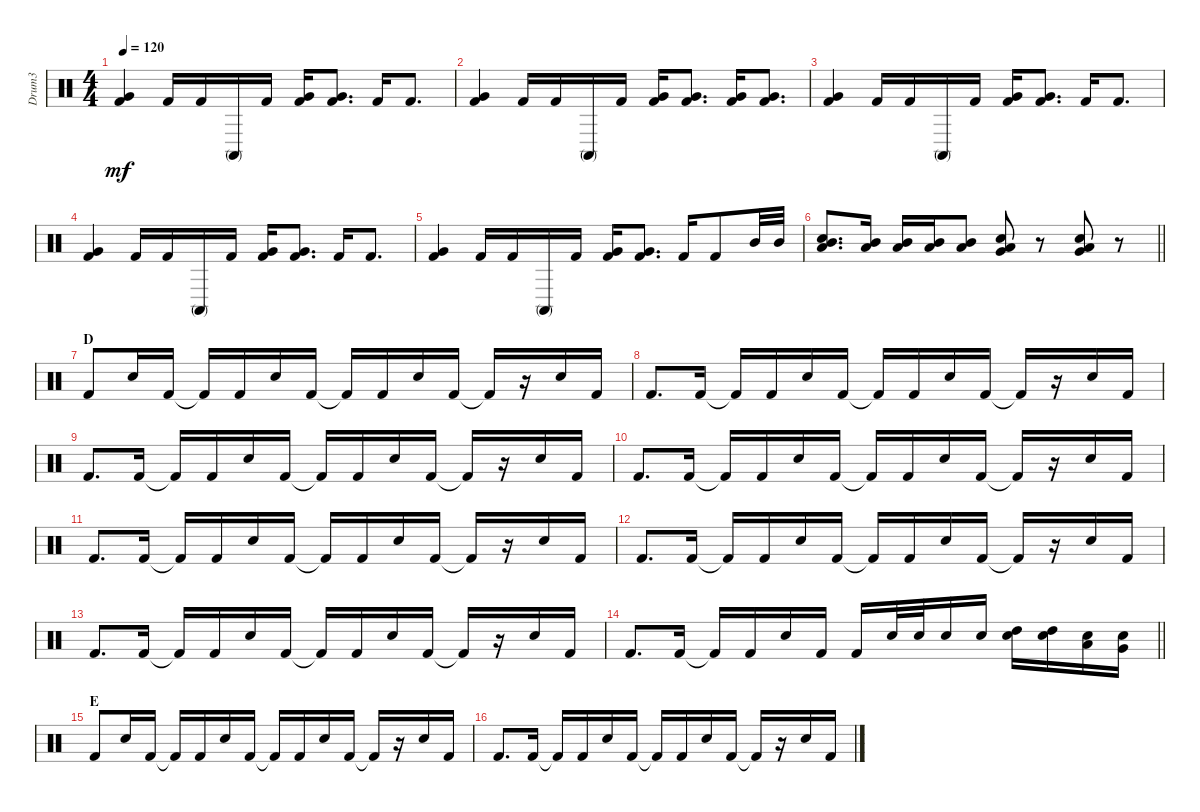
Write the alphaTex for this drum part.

\track ("Drum3" "Drum3") {instrument percussion}
\staff {score}
\articulation defaults
\ts (4 4)
\tempo 120
\clef neutral
\ks c
("Kick (hit) 2" "Very Low Tom (hit)").4{dy mf} "Kick (hit) 2".16 "Kick (hit) 2".16 "Conga high (mute)".16 "Kick (hit) 2".16 ("Kick (hit) 2" "Very Low Tom (hit)").16 ("Kick (hit) 2" "Very Low Tom (hit)").8{d} "Kick (hit) 2".16 "Kick (hit) 2".8{d} |
("Kick (hit) 2" "Very Low Tom (hit)").4 "Kick (hit) 2".16 "Kick (hit) 2".16 "Conga high (mute)".16 "Kick (hit) 2".16 ("Kick (hit) 2" "Very Low Tom (hit)").16 ("Kick (hit) 2" "Very Low Tom (hit)").8{d} ("Kick (hit) 2" "Very Low Tom (hit)").16 ("Kick (hit) 2" "Very Low Tom (hit)").8{d} |
("Kick (hit) 2" "Very Low Tom (hit)").4 "Kick (hit) 2".16 "Kick (hit) 2".16 "Conga high (mute)".16 "Kick (hit) 2".16 ("Kick (hit) 2" "Very Low Tom (hit)").16 ("Kick (hit) 2" "Very Low Tom (hit)").8{d} "Kick (hit) 2".16 "Kick (hit) 2".8{d} |
("Kick (hit) 2" "Very Low Tom (hit)").4 "Kick (hit) 2".16 "Kick (hit) 2".16 "Conga high (mute)".16 "Kick (hit) 2".16 ("Kick (hit) 2" "Very Low Tom (hit)").16 ("Kick (hit) 2" "Very Low Tom (hit)").8{d} "Kick (hit) 2".16 "Kick (hit) 2".8{d} |
("Kick (hit) 2" "Very Low Tom (hit)").4 "Kick (hit) 2".16 "Kick (hit) 2".16 "Conga high (mute)".16 "Kick (hit) 2".16 ("Kick (hit) 2" "Very Low Tom (hit)").16 ("Kick (hit) 2" "Very Low Tom (hit)").8{d} "Kick (hit) 2".16 "Kick (hit) 2".8 "Mid Tom (hit)".32 "Mid Tom (hit)".32 |
\barLineRight lightlight
("Mid Tom (hit)" "Snare (hit) 2" "Low Tom (hit)").8{d} ("Mid Tom (hit)" "Low Tom (hit)").16 ("Mid Tom (hit)" "Low Tom (hit)").16 ("Mid Tom (hit)" "Low Tom (hit)").16 ("Low Tom (hit)" "Mid Tom (hit)").8 ("Low Tom (hit)" "Very Low Tom (hit)" "Snare (hit) 2").8 r.8 ("Low Tom (hit)" "Very Low Tom (hit)" "Snare (hit) 2").8 r.8 |
\section ("" "D")
"Kick (hit) 2".8 "Electric Snare (hit)".16 "Kick (hit) 2".16 "Kick (hit) 2"{t}.16 "Kick (hit) 2".16 "Electric Snare (hit)".16 "Kick (hit) 2".16 "Kick (hit) 2"{t}.16 "Kick (hit) 2".16 "Electric Snare (hit)".16 "Kick (hit) 2".16 "Kick (hit) 2"{t}.16 r.16 "Electric Snare (hit)".16 "Kick (hit) 2".16 |
"Kick (hit) 2".8{d} "Kick (hit) 2".16 "Kick (hit) 2"{t}.16 "Kick (hit) 2".16 "Electric Snare (hit)".16 "Kick (hit) 2".16 "Kick (hit) 2"{t}.16 "Kick (hit) 2".16 "Electric Snare (hit)".16 "Kick (hit) 2".16 "Kick (hit) 2"{t}.16 r.16 "Electric Snare (hit)".16 "Kick (hit) 2".16 |
"Kick (hit) 2".8{d} "Kick (hit) 2".16 "Kick (hit) 2"{t}.16 "Kick (hit) 2".16 "Electric Snare (hit)".16 "Kick (hit) 2".16 "Kick (hit) 2"{t}.16 "Kick (hit) 2".16 "Electric Snare (hit)".16 "Kick (hit) 2".16 "Kick (hit) 2"{t}.16 r.16 "Electric Snare (hit)".16 "Kick (hit) 2".16 |
"Kick (hit) 2".8{d} "Kick (hit) 2".16 "Kick (hit) 2"{t}.16 "Kick (hit) 2".16 "Electric Snare (hit)".16 "Kick (hit) 2".16 "Kick (hit) 2"{t}.16 "Kick (hit) 2".16 "Electric Snare (hit)".16 "Kick (hit) 2".16 "Kick (hit) 2"{t}.16 r.16 "Electric Snare (hit)".16 "Kick (hit) 2".16 |
"Kick (hit) 2".8{d} "Kick (hit) 2".16 "Kick (hit) 2"{t}.16 "Kick (hit) 2".16 "Electric Snare (hit)".16 "Kick (hit) 2".16 "Kick (hit) 2"{t}.16 "Kick (hit) 2".16 "Electric Snare (hit)".16 "Kick (hit) 2".16 "Kick (hit) 2"{t}.16 r.16 "Electric Snare (hit)".16 "Kick (hit) 2".16 |
"Kick (hit) 2".8{d} "Kick (hit) 2".16 "Kick (hit) 2"{t}.16 "Kick (hit) 2".16 "Electric Snare (hit)".16 "Kick (hit) 2".16 "Kick (hit) 2"{t}.16 "Kick (hit) 2".16 "Electric Snare (hit)".16 "Kick (hit) 2".16 "Kick (hit) 2"{t}.16 r.16 "Electric Snare (hit)".16 "Kick (hit) 2".16 |
"Kick (hit) 2".8{d} "Kick (hit) 2".16 "Kick (hit) 2"{t}.16 "Kick (hit) 2".16 "Electric Snare (hit)".16 "Kick (hit) 2".16 "Kick (hit) 2"{t}.16 "Kick (hit) 2".16 "Electric Snare (hit)".16 "Kick (hit) 2".16 "Kick (hit) 2"{t}.16 r.16 "Electric Snare (hit)".16 "Kick (hit) 2".16 |
\barLineRight lightlight "Kick (hit) 2".8{d} "Kick (hit) 2".16 "Kick (hit) 2"{t}.16 "Kick (hit) 2".16 "Electric Snare (hit)".16 "Kick (hit) 2".16 "Kick (hit) 2".16 "Electric Snare (hit)".32 "Electric Snare (hit)".32 "Electric Snare (hit)".16 "Electric Snare (hit)".16
("Electric Snare (hit)" "High Tom (hit)").16 ("Electric Snare (hit)" "High Tom (hit)").16 ("Electric Snare (hit)" "Low Tom (hit)").16 ("Electric Snare (hit)" "Very Low Tom (hit)").16 |
\section ("" "E")
"Kick (hit) 2".8 "Electric Snare (hit)".16 "Kick (hit) 2".16 "Kick (hit) 2"{t}.16 "Kick (hit) 2".16 "Electric Snare (hit)".16 "Kick (hit) 2".16 "Kick (hit) 2"{t}.16 "Kick (hit) 2".16 "Electric Snare (hit)".16 "Kick (hit) 2".16 "Kick (hit) 2"{t}.16 r.16 "Electric Snare (hit)".16 "Kick (hit) 2".16 |
"Kick (hit) 2".8{d} "Kick (hit) 2".16 "Kick (hit) 2"{t}.16 "Kick (hit) 2".16 "Electric Snare (hit)".16 "Kick (hit) 2".16 "Kick (hit) 2"{t}.16 "Kick (hit) 2".16 "Electric Snare (hit)".16 "Kick (hit) 2".16 "Kick (hit) 2"{t}.16 r.16 "Electric Snare (hit)".16 "Kick (hit) 2".16
